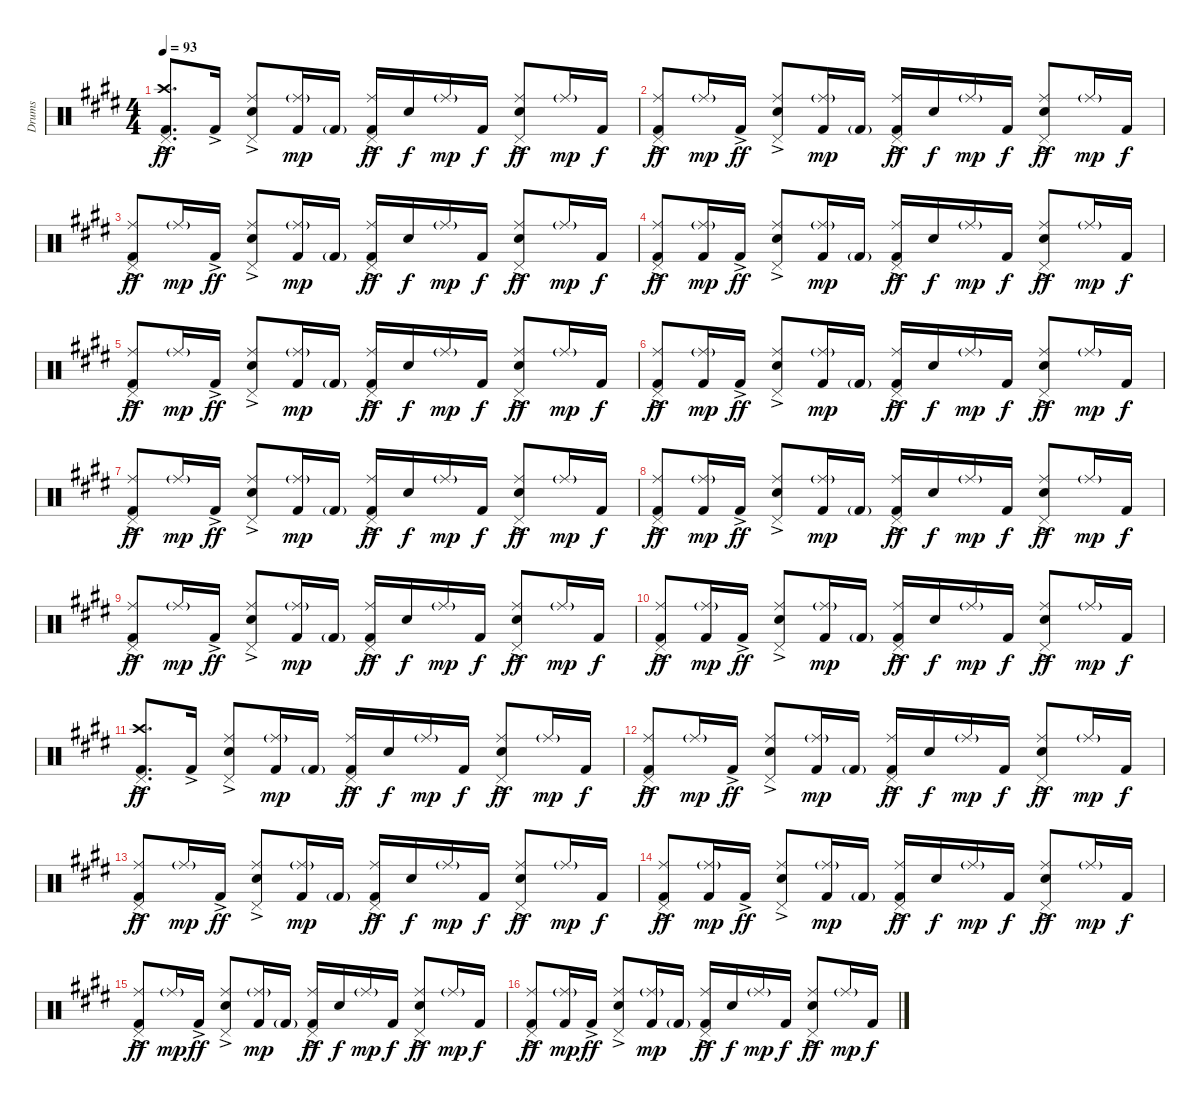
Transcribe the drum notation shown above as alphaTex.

\track ("Drums" "Drums") {instrument percussion}
\staff {score}
\articulation defaults
\ts (4 4)
\tempo 93
\clef neutral
\ks e
("Pedal Hi-Hat (hit)" "Crash high (hit)" "Kick (hit) 2"{ac}).8{d dy ff} "Kick (hit) 2"{ac}.16 ("Pedal Hi-Hat (hit)" "Ride (middle)" "Snare (hit) 2"{ac}).8 ("Ride (middle)"{g} "Kick (hit) 2").16{dy mp} "Kick (hit) 2"{g}.16 ("Pedal Hi-Hat (hit)" "Ride (middle)" "Kick (hit) 2"{ac}).16{dy ff} "Snare (hit) 2".16{dy f} "Ride (middle)"{g}.16{dy mp} "Kick (hit) 2".16{dy f} ("Pedal Hi-Hat (hit)" "Ride (middle)" "Snare (hit) 2"{ac}).8{dy ff} "Ride (middle)"{g}.16{dy mp} "Kick (hit) 2".16{dy f} |
("Pedal Hi-Hat (hit)" "Ride (middle)" "Kick (hit) 2"{ac}).8{dy ff} "Ride (middle)"{g}.16{dy mp} "Kick (hit) 2"{ac}.16{dy ff} ("Pedal Hi-Hat (hit)" "Ride (middle)" "Snare (hit) 2"{ac}).8 ("Ride (middle)"{g} "Kick (hit) 2").16{dy mp} "Kick (hit) 2"{g}.16 ("Pedal Hi-Hat (hit)" "Ride (middle)" "Kick (hit) 2"{ac}).16{dy ff} "Snare (hit) 2".16{dy f} "Ride (middle)"{g}.16{dy mp} "Kick (hit) 2".16{dy f} ("Pedal Hi-Hat (hit)" "Ride (middle)" "Snare (hit) 2"{ac}).8{dy ff} "Ride (middle)"{g}.16{dy mp} "Kick (hit) 2".16{dy f} |
("Pedal Hi-Hat (hit)" "Ride (middle)" "Kick (hit) 2"{ac}).8{dy ff} "Ride (middle)"{g}.16{dy mp} "Kick (hit) 2"{ac}.16{dy ff} ("Pedal Hi-Hat (hit)" "Ride (middle)" "Snare (hit) 2"{ac}).8 ("Ride (middle)"{g} "Kick (hit) 2").16{dy mp} "Kick (hit) 2"{g}.16 ("Pedal Hi-Hat (hit)" "Ride (middle)" "Kick (hit) 2"{ac}).16{dy ff} "Snare (hit) 2".16{dy f} "Ride (middle)"{g}.16{dy mp} "Kick (hit) 2".16{dy f} ("Pedal Hi-Hat (hit)" "Ride (middle)" "Snare (hit) 2"{ac}).8{dy ff} "Ride (middle)"{g}.16{dy mp} "Kick (hit) 2".16{dy f} |
("Pedal Hi-Hat (hit)" "Ride (middle)" "Kick (hit) 2"{ac}).8{dy ff} ("Ride (middle)"{g} "Kick (hit) 2").16{dy mp} "Kick (hit) 2"{ac}.16{dy ff} ("Pedal Hi-Hat (hit)" "Ride (middle)" "Snare (hit) 2"{ac}).8 ("Ride (middle)"{g} "Kick (hit) 2").16{dy mp} "Kick (hit) 2"{g}.16 ("Pedal Hi-Hat (hit)" "Ride (middle)" "Kick (hit) 2"{ac}).16{dy ff} "Snare (hit) 2".16{dy f} "Ride (middle)"{g}.16{dy mp} "Kick (hit) 2".16{dy f} ("Pedal Hi-Hat (hit)" "Ride (middle)" "Snare (hit) 2"{ac}).8{dy ff} "Ride (middle)"{g}.16{dy mp} "Kick (hit) 2".16{dy f} |
("Pedal Hi-Hat (hit)" "Ride (middle)" "Kick (hit) 2"{ac}).8{dy ff} "Ride (middle)"{g}.16{dy mp} "Kick (hit) 2"{ac}.16{dy ff} ("Pedal Hi-Hat (hit)" "Ride (middle)" "Snare (hit) 2"{ac}).8 ("Ride (middle)"{g} "Kick (hit) 2").16{dy mp} "Kick (hit) 2"{g}.16 ("Pedal Hi-Hat (hit)" "Ride (middle)" "Kick (hit) 2"{ac}).16{dy ff} "Snare (hit) 2".16{dy f} "Ride (middle)"{g}.16{dy mp} "Kick (hit) 2".16{dy f} ("Pedal Hi-Hat (hit)" "Ride (middle)" "Snare (hit) 2"{ac}).8{dy ff} "Ride (middle)"{g}.16{dy mp} "Kick (hit) 2".16{dy f} |
("Pedal Hi-Hat (hit)" "Ride (middle)" "Kick (hit) 2"{ac}).8{dy ff} ("Ride (middle)"{g} "Kick (hit) 2").16{dy mp} "Kick (hit) 2"{ac}.16{dy ff} ("Pedal Hi-Hat (hit)" "Ride (middle)" "Snare (hit) 2"{ac}).8 ("Ride (middle)"{g} "Kick (hit) 2").16{dy mp} "Kick (hit) 2"{g}.16 ("Pedal Hi-Hat (hit)" "Ride (middle)" "Kick (hit) 2"{ac}).16{dy ff} "Snare (hit) 2".16{dy f} "Ride (middle)"{g}.16{dy mp} "Kick (hit) 2".16{dy f} ("Pedal Hi-Hat (hit)" "Ride (middle)" "Snare (hit) 2"{ac}).8{dy ff} "Ride (middle)"{g}.16{dy mp} "Kick (hit) 2".16{dy f} |
("Pedal Hi-Hat (hit)" "Ride (middle)" "Kick (hit) 2"{ac}).8{dy ff} "Ride (middle)"{g}.16{dy mp} "Kick (hit) 2"{ac}.16{dy ff} ("Pedal Hi-Hat (hit)" "Ride (middle)" "Snare (hit) 2"{ac}).8 ("Ride (middle)"{g} "Kick (hit) 2").16{dy mp} "Kick (hit) 2"{g}.16 ("Pedal Hi-Hat (hit)" "Ride (middle)" "Kick (hit) 2"{ac}).16{dy ff} "Snare (hit) 2".16{dy f} "Ride (middle)"{g}.16{dy mp} "Kick (hit) 2".16{dy f} ("Pedal Hi-Hat (hit)" "Ride (middle)" "Snare (hit) 2"{ac}).8{dy ff} "Ride (middle)"{g}.16{dy mp} "Kick (hit) 2".16{dy f} |
("Pedal Hi-Hat (hit)" "Ride (middle)" "Kick (hit) 2"{ac}).8{dy ff} ("Ride (middle)"{g} "Kick (hit) 2").16{dy mp} "Kick (hit) 2"{ac}.16{dy ff} ("Pedal Hi-Hat (hit)" "Ride (middle)" "Snare (hit) 2"{ac}).8 ("Ride (middle)"{g} "Kick (hit) 2").16{dy mp} "Kick (hit) 2"{g}.16 ("Pedal Hi-Hat (hit)" "Ride (middle)" "Kick (hit) 2"{ac}).16{dy ff} "Snare (hit) 2".16{dy f} "Ride (middle)"{g}.16{dy mp} "Kick (hit) 2".16{dy f} ("Pedal Hi-Hat (hit)" "Ride (middle)" "Snare (hit) 2"{ac}).8{dy ff} "Ride (middle)"{g}.16{dy mp} "Kick (hit) 2".16{dy f} |
("Pedal Hi-Hat (hit)" "Ride (middle)" "Kick (hit) 2"{ac}).8{dy ff} "Ride (middle)"{g}.16{dy mp} "Kick (hit) 2"{ac}.16{dy ff} ("Pedal Hi-Hat (hit)" "Ride (middle)" "Snare (hit) 2"{ac}).8 ("Ride (middle)"{g} "Kick (hit) 2").16{dy mp} "Kick (hit) 2"{g}.16 ("Pedal Hi-Hat (hit)" "Ride (middle)" "Kick (hit) 2"{ac}).16{dy ff} "Snare (hit) 2".16{dy f} "Ride (middle)"{g}.16{dy mp} "Kick (hit) 2".16{dy f} ("Pedal Hi-Hat (hit)" "Ride (middle)" "Snare (hit) 2"{ac}).8{dy ff} "Ride (middle)"{g}.16{dy mp} "Kick (hit) 2".16{dy f} |
("Pedal Hi-Hat (hit)" "Ride (middle)" "Kick (hit) 2"{ac}).8{dy ff} ("Ride (middle)"{g} "Kick (hit) 2").16{dy mp} "Kick (hit) 2"{ac}.16{dy ff} ("Pedal Hi-Hat (hit)" "Ride (middle)" "Snare (hit) 2"{ac}).8 ("Ride (middle)"{g} "Kick (hit) 2").16{dy mp} "Kick (hit) 2"{g}.16 ("Pedal Hi-Hat (hit)" "Ride (middle)" "Kick (hit) 2"{ac}).16{dy ff} "Snare (hit) 2".16{dy f} "Ride (middle)"{g}.16{dy mp} "Kick (hit) 2".16{dy f} ("Pedal Hi-Hat (hit)" "Ride (middle)" "Snare (hit) 2"{ac}).8{dy ff} "Ride (middle)"{g}.16{dy mp} "Kick (hit) 2".16{dy f} |
("Pedal Hi-Hat (hit)" "Crash high (hit)" "Kick (hit) 2"{ac}).8{d dy ff} "Kick (hit) 2"{ac}.16 ("Pedal Hi-Hat (hit)" "Ride (middle)" "Snare (hit) 2"{ac}).8 ("Ride (middle)"{g} "Kick (hit) 2").16{dy mp} "Kick (hit) 2"{g}.16 ("Pedal Hi-Hat (hit)" "Ride (middle)" "Kick (hit) 2"{ac}).16{dy ff} "Snare (hit) 2".16{dy f} "Ride (middle)"{g}.16{dy mp} "Kick (hit) 2".16{dy f} ("Pedal Hi-Hat (hit)" "Ride (middle)" "Snare (hit) 2"{ac}).8{dy ff} "Ride (middle)"{g}.16{dy mp} "Kick (hit) 2".16{dy f} |
("Pedal Hi-Hat (hit)" "Ride (middle)" "Kick (hit) 2"{ac}).8{dy ff} "Ride (middle)"{g}.16{dy mp} "Kick (hit) 2"{ac}.16{dy ff} ("Pedal Hi-Hat (hit)" "Ride (middle)" "Snare (hit) 2"{ac}).8 ("Ride (middle)"{g} "Kick (hit) 2").16{dy mp} "Kick (hit) 2"{g}.16 ("Pedal Hi-Hat (hit)" "Ride (middle)" "Kick (hit) 2"{ac}).16{dy ff} "Snare (hit) 2".16{dy f} "Ride (middle)"{g}.16{dy mp} "Kick (hit) 2".16{dy f} ("Pedal Hi-Hat (hit)" "Ride (middle)" "Snare (hit) 2"{ac}).8{dy ff} "Ride (middle)"{g}.16{dy mp} "Kick (hit) 2".16{dy f} |
("Pedal Hi-Hat (hit)" "Ride (middle)" "Kick (hit) 2"{ac}).8{dy ff} "Ride (middle)"{g}.16{dy mp} "Kick (hit) 2"{ac}.16{dy ff} ("Pedal Hi-Hat (hit)" "Ride (middle)" "Snare (hit) 2"{ac}).8 ("Ride (middle)"{g} "Kick (hit) 2").16{dy mp} "Kick (hit) 2"{g}.16 ("Pedal Hi-Hat (hit)" "Ride (middle)" "Kick (hit) 2"{ac}).16{dy ff} "Snare (hit) 2".16{dy f} "Ride (middle)"{g}.16{dy mp} "Kick (hit) 2".16{dy f} ("Pedal Hi-Hat (hit)" "Ride (middle)" "Snare (hit) 2"{ac}).8{dy ff} "Ride (middle)"{g}.16{dy mp} "Kick (hit) 2".16{dy f} |
("Pedal Hi-Hat (hit)" "Ride (middle)" "Kick (hit) 2"{ac}).8{dy ff} ("Ride (middle)"{g} "Kick (hit) 2").16{dy mp} "Kick (hit) 2"{ac}.16{dy ff} ("Pedal Hi-Hat (hit)" "Ride (middle)" "Snare (hit) 2"{ac}).8 ("Ride (middle)"{g} "Kick (hit) 2").16{dy mp} "Kick (hit) 2"{g}.16 ("Pedal Hi-Hat (hit)" "Ride (middle)" "Kick (hit) 2"{ac}).16{dy ff} "Snare (hit) 2".16{dy f} "Ride (middle)"{g}.16{dy mp} "Kick (hit) 2".16{dy f} ("Pedal Hi-Hat (hit)" "Ride (middle)" "Snare (hit) 2"{ac}).8{dy ff} "Ride (middle)"{g}.16{dy mp} "Kick (hit) 2".16{dy f} |
("Pedal Hi-Hat (hit)" "Ride (middle)" "Kick (hit) 2"{ac}).8{dy ff} "Ride (middle)"{g}.16{dy mp} "Kick (hit) 2"{ac}.16{dy ff} ("Pedal Hi-Hat (hit)" "Ride (middle)" "Snare (hit) 2"{ac}).8 ("Ride (middle)"{g} "Kick (hit) 2").16{dy mp} "Kick (hit) 2"{g}.16 ("Pedal Hi-Hat (hit)" "Ride (middle)" "Kick (hit) 2"{ac}).16{dy ff} "Snare (hit) 2".16{dy f} "Ride (middle)"{g}.16{dy mp} "Kick (hit) 2".16{dy f} ("Pedal Hi-Hat (hit)" "Ride (middle)" "Snare (hit) 2"{ac}).8{dy ff} "Ride (middle)"{g}.16{dy mp} "Kick (hit) 2".16{dy f} |
("Pedal Hi-Hat (hit)" "Ride (middle)" "Kick (hit) 2"{ac}).8{dy ff} ("Ride (middle)"{g} "Kick (hit) 2").16{dy mp} "Kick (hit) 2"{ac}.16{dy ff} ("Pedal Hi-Hat (hit)" "Ride (middle)" "Snare (hit) 2"{ac}).8 ("Ride (middle)"{g} "Kick (hit) 2").16{dy mp} "Kick (hit) 2"{g}.16 ("Pedal Hi-Hat (hit)" "Ride (middle)" "Kick (hit) 2"{ac}).16{dy ff} "Snare (hit) 2".16{dy f} "Ride (middle)"{g}.16{dy mp} "Kick (hit) 2".16{dy f} ("Pedal Hi-Hat (hit)" "Ride (middle)" "Snare (hit) 2"{ac}).8{dy ff} "Ride (middle)"{g}.16{dy mp} "Kick (hit) 2".16{dy f}
